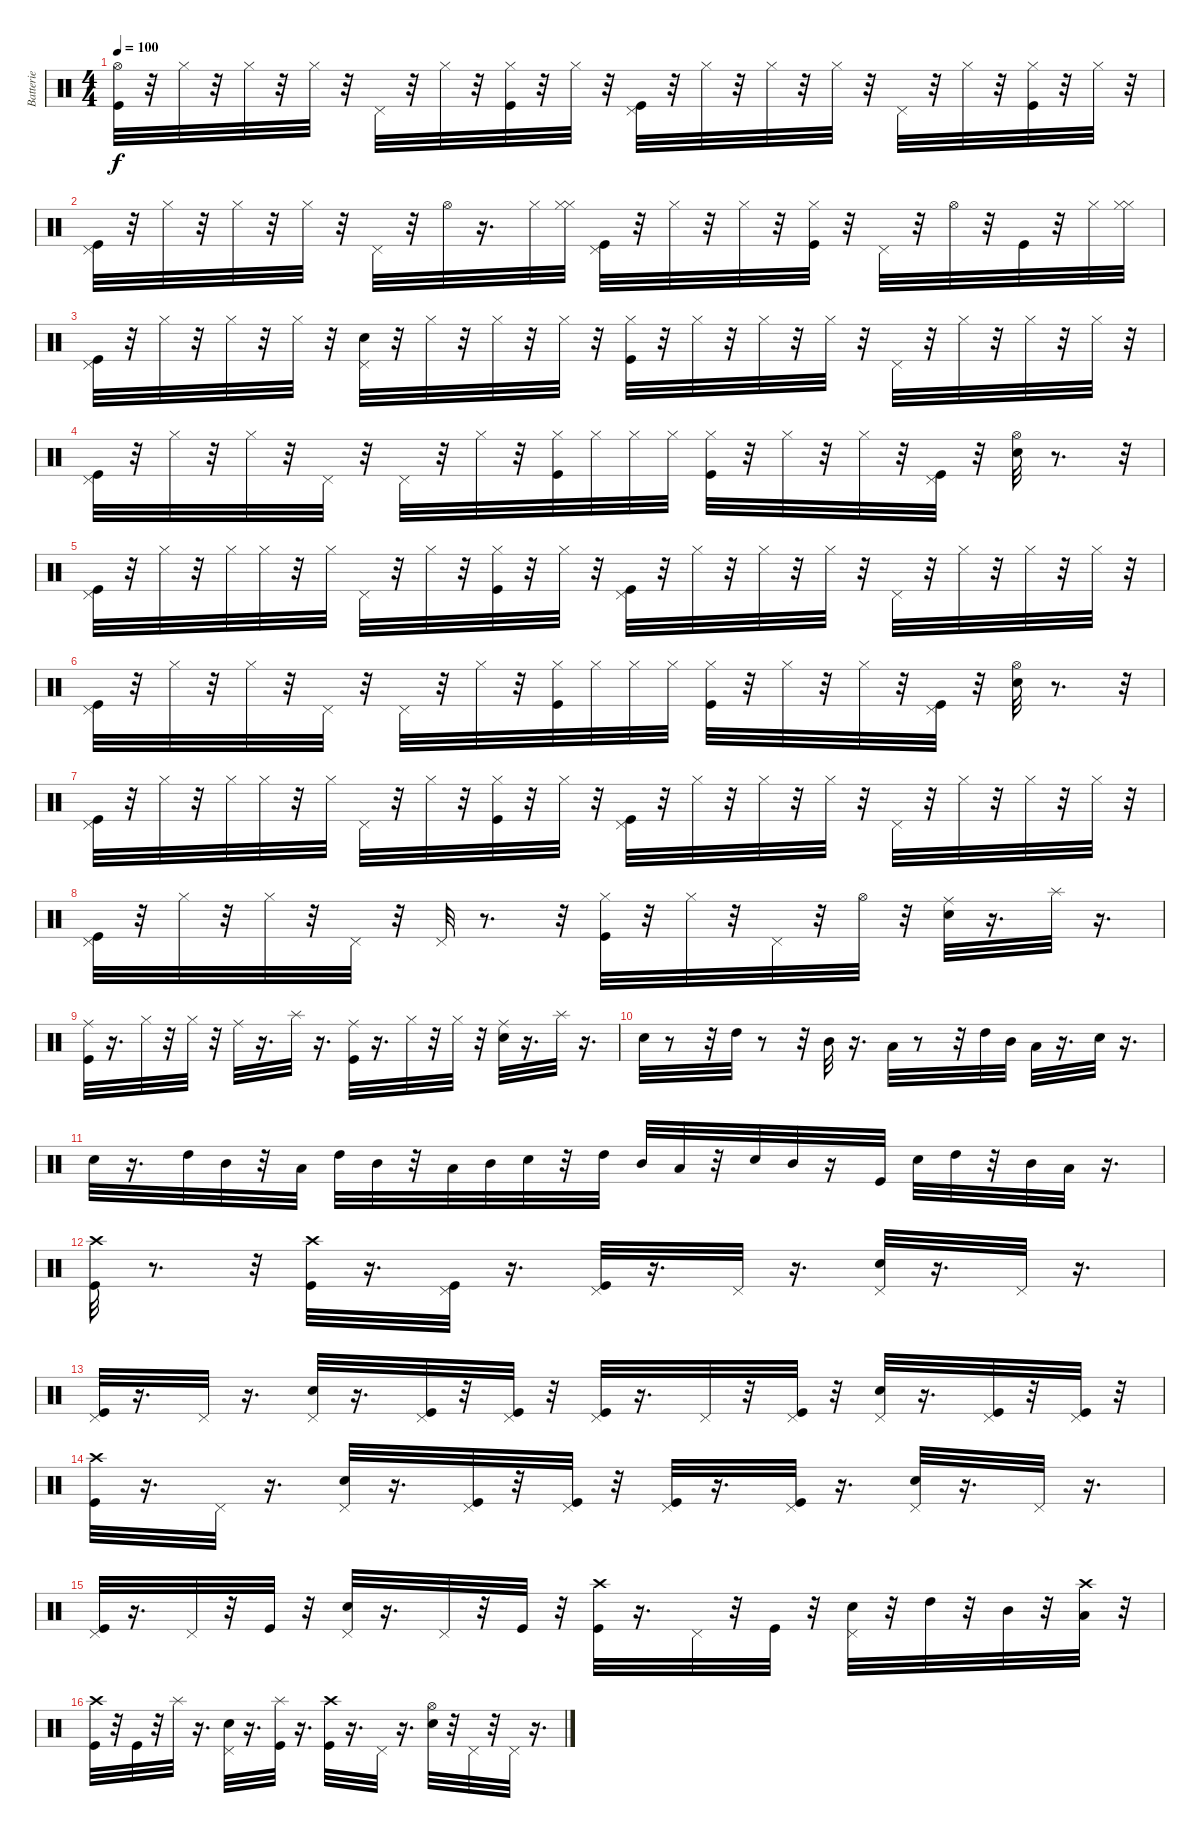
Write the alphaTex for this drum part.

\track ("Batterie" "Batterie") {instrument percussion}
\staff {score}
\articulation defaults
\ts (4 4)
\tempo 100
\clef neutral
\ks c
("Kick (hit)" "Hi-Hat (open)").32{dy f} r.32 "Hi-Hat (closed)".32 r.32 "Hi-Hat (closed)".32 r.32 "Hi-Hat (closed)".32 r.32 "Pedal Hi-Hat (hit)".32 r.32 "Hi-Hat (closed)".32 r.32 ("Kick (hit)" "Hi-Hat (closed)").32 r.32 "Hi-Hat (closed)".32 r.32 ("Kick (hit)" "Pedal Hi-Hat (hit)").32 r.32 "Hi-Hat (closed)".32 r.32 "Hi-Hat (closed)".32 r.32 "Hi-Hat (closed)".32 r.32 "Pedal Hi-Hat (hit)".32 r.32 "Hi-Hat (closed)".32 r.32 ("Kick (hit)" "Hi-Hat (closed)").32 r.32 "Hi-Hat (closed)".32 r.32 |
("Kick (hit)" "Pedal Hi-Hat (hit)").32 r.32 "Hi-Hat (closed)".32 r.32 "Hi-Hat (closed)".32 r.32 "Hi-Hat (closed)".32 r.32 "Pedal Hi-Hat (hit)".32 r.32 "Hi-Hat (open)".32 r.16{d} "Hi-Hat (closed)".32 ("Hi-Hat (closed)" "Hi-Hat (closed)").32 ("Kick (hit)" "Pedal Hi-Hat (hit)").32 r.32 "Hi-Hat (closed)".32 r.32 "Hi-Hat (closed)".32 r.32 ("Kick (hit)" "Hi-Hat (closed)").32 r.32 "Pedal Hi-Hat (hit)".32 r.32 "Hi-Hat (open)".32 r.32 "Kick (hit)".32 r.32 "Hi-Hat (closed)".32 ("Hi-Hat (closed)" "Hi-Hat (closed)").32 |
("Pedal Hi-Hat (hit)" "Kick (hit)").32 r.32 "Hi-Hat (closed)".32 r.32 "Hi-Hat (closed)".32 r.32 "Hi-Hat (closed)".32 r.32 ("Pedal Hi-Hat (hit)" "Snare (hit) 2").32 r.32 "Hi-Hat (closed)".32 r.32 "Hi-Hat (closed)".32 r.32 "Hi-Hat (closed)".32 r.32 ("Hi-Hat (closed)" "Kick (hit)").32 r.32 "Hi-Hat (closed)".32 r.32 "Hi-Hat (closed)".32 r.32 "Hi-Hat (closed)".32 r.32 "Pedal Hi-Hat (hit)".32 r.32 "Hi-Hat (closed)".32 r.32 "Hi-Hat (closed)".32 r.32 "Hi-Hat (closed)".32 r.32 |
("Pedal Hi-Hat (hit)" "Kick (hit)").32 r.32 "Hi-Hat (closed)".32 r.32 "Hi-Hat (closed)".32 r.32 "Pedal Hi-Hat (hit)".32 r.32 "Pedal Hi-Hat (hit)".32 r.32 "Hi-Hat (closed)".32 r.32 ("Hi-Hat (closed)" "Kick (hit)").32 "Hi-Hat (closed)".32 "Hi-Hat (closed)".32 "Hi-Hat (closed)".32 ("Hi-Hat (closed)" "Kick (hit)").32 r.32 "Hi-Hat (closed)".32 r.32 "Hi-Hat (closed)".32 r.32 ("Pedal Hi-Hat (hit)" "Kick (hit)").32 r.32 ("Hi-Hat (open)" "Snare (hit) 2").32 r.8{d} r.32 |
("Pedal Hi-Hat (hit)" "Kick (hit)").32 r.32 "Hi-Hat (closed)".32 r.32 "Hi-Hat (closed)".32 "Hi-Hat (closed)".32 r.32 "Hi-Hat (closed)".32 "Pedal Hi-Hat (hit)".32 r.32 "Hi-Hat (closed)".32 r.32 ("Hi-Hat (closed)" "Kick (hit)").32 r.32 "Hi-Hat (closed)".32 r.32 ("Pedal Hi-Hat (hit)" "Kick (hit)").32 r.32 "Hi-Hat (closed)".32 r.32 "Hi-Hat (closed)".32 r.32 "Hi-Hat (closed)".32 r.32 "Pedal Hi-Hat (hit)".32 r.32 "Hi-Hat (closed)".32 r.32 "Hi-Hat (closed)".32 r.32 "Hi-Hat (closed)".32 r.32 |
("Pedal Hi-Hat (hit)" "Kick (hit)").32 r.32 "Hi-Hat (closed)".32 r.32 "Hi-Hat (closed)".32 r.32 "Pedal Hi-Hat (hit)".32 r.32 "Pedal Hi-Hat (hit)".32 r.32 "Hi-Hat (closed)".32 r.32 ("Hi-Hat (closed)" "Kick (hit)").32 "Hi-Hat (closed)".32 "Hi-Hat (closed)".32 "Hi-Hat (closed)".32 ("Hi-Hat (closed)" "Kick (hit)").32 r.32 "Hi-Hat (closed)".32 r.32 "Hi-Hat (closed)".32 r.32 ("Pedal Hi-Hat (hit)" "Kick (hit)").32 r.32 ("Hi-Hat (open)" "Snare (hit) 2").32 r.8{d} r.32 |
("Pedal Hi-Hat (hit)" "Kick (hit)").32 r.32 "Hi-Hat (closed)".32 r.32 "Hi-Hat (closed)".32 "Hi-Hat (closed)".32 r.32 "Hi-Hat (closed)".32 "Pedal Hi-Hat (hit)".32 r.32 "Hi-Hat (closed)".32 r.32 ("Hi-Hat (closed)" "Kick (hit)").32 r.32 "Hi-Hat (closed)".32 r.32 ("Pedal Hi-Hat (hit)" "Kick (hit)").32 r.32 "Hi-Hat (closed)".32 r.32 "Hi-Hat (closed)".32 r.32 "Hi-Hat (closed)".32 r.32 "Pedal Hi-Hat (hit)".32 r.32 "Hi-Hat (closed)".32 r.32 "Hi-Hat (closed)".32 r.32 "Hi-Hat (closed)".32 r.32 |
("Pedal Hi-Hat (hit)" "Kick (hit)").32 r.32 "Hi-Hat (closed)".32 r.32 "Hi-Hat (closed)".32 r.32 "Pedal Hi-Hat (hit)".32 r.32 "Pedal Hi-Hat (hit)".32 r.8{d} r.32 ("Hi-Hat (closed)" "Kick (hit)").32 r.32 "Hi-Hat (closed)".32 r.32 "Pedal Hi-Hat (hit)".32 r.32 "Hi-Hat (open)".32 r.32 ("Ride (middle)" "Snare (hit) 2").32 r.16{d} "Splash (hit)".32 r.16{d} |
("Ride (middle)" "Kick (hit)").32 r.16{d} "Hi-Hat (closed)".32 r.32 "Hi-Hat (closed)".32 r.32 "Ride (middle)".32 r.16{d} "Splash (hit)".32 r.16{d} ("Ride (middle)" "Kick (hit)").32 r.16{d} "Hi-Hat (closed)".32 r.32 "Hi-Hat (closed)".32 r.32 ("Ride (middle)" "Snare (hit) 2").32 r.16{d} "Splash (hit)".32 r.16{d} |
"Snare (hit) 2".32 r.8 r.32 "High Tom (hit)".32 r.8 r.32 "Mid Tom (hit)".32 r.16{d} "Low Tom (hit)".32 r.8 r.32 "High Tom (hit)".32 "Mid Tom (hit)".32 "Low Tom (hit)".32 r.16{d} "Snare (hit) 2".32 r.16{d} |
"Snare (hit) 2".32 r.16{d} "High Tom (hit)".32 "Mid Tom (hit)".32 r.32 "Low Tom (hit)".32 "High Tom (hit)".32 "Mid Tom (hit)".32 r.32 "Low Tom (hit)".32 "Mid Tom (hit)".32 "Snare (hit) 2".32 r.32 "High Tom (hit)".32 "Mid Tom (hit)".32 "Low Tom (hit)".32 r.32 "Snare (hit) 2".32 "Mid Tom (hit)".32 r.16 "Kick (hit)".32 "Snare (hit) 2".32 "High Tom (hit)".32 r.32 "Mid Tom (hit)".32 "Low Tom (hit)".32 r.16{d} |
("Crash high (hit)" "Kick (hit)").32 r.8{d} r.32 ("Crash high (hit)" "Kick (hit)").32 r.16{d} ("Pedal Hi-Hat (hit)" "Kick (hit)").32 r.16{d} ("Pedal Hi-Hat (hit)" "Kick (hit)").32 r.16{d} "Pedal Hi-Hat (hit)".32 r.16{d} ("Pedal Hi-Hat (hit)" "Snare (hit) 2").32 r.16{d} "Pedal Hi-Hat (hit)".32 r.16{d} |
("Pedal Hi-Hat (hit)" "Kick (hit)").32 r.16{d} "Pedal Hi-Hat (hit)".32 r.16{d} ("Pedal Hi-Hat (hit)" "Snare (hit) 2").32 r.16{d} ("Pedal Hi-Hat (hit)" "Kick (hit)").32 r.32 ("Pedal Hi-Hat (hit)" "Kick (hit)").32 r.32 ("Pedal Hi-Hat (hit)" "Kick (hit)").32 r.16{d} "Pedal Hi-Hat (hit)".32 r.32 ("Pedal Hi-Hat (hit)" "Kick (hit)").32 r.32 ("Pedal Hi-Hat (hit)" "Snare (hit) 2").32 r.16{d} ("Pedal Hi-Hat (hit)" "Kick (hit)").32 r.32 ("Pedal Hi-Hat (hit)" "Kick (hit)").32 r.32 |
("Kick (hit)" "Crash high (hit)").32 r.16{d} "Pedal Hi-Hat (hit)".32 r.16{d} ("Pedal Hi-Hat (hit)" "Snare (hit) 2").32 r.16{d} ("Pedal Hi-Hat (hit)" "Kick (hit)").32 r.32 ("Pedal Hi-Hat (hit)" "Kick (hit)").32 r.32 ("Pedal Hi-Hat (hit)" "Kick (hit)").32 r.16{d} ("Pedal Hi-Hat (hit)" "Kick (hit)").32 r.16{d} ("Pedal Hi-Hat (hit)" "Snare (hit) 2").32 r.16{d} "Pedal Hi-Hat (hit)".32 r.16{d} |
("Kick (hit)" "Pedal Hi-Hat (hit)").32 r.16{d} "Pedal Hi-Hat (hit)".32 r.32 "Kick (hit)".32 r.32 ("Snare (hit) 2" "Pedal Hi-Hat (hit)").32 r.16{d} "Pedal Hi-Hat (hit)".32 r.32 "Kick (hit)".32 r.32 ("Kick (hit)" "Crash high (hit)").32 r.16{d} "Pedal Hi-Hat (hit)".32 r.32 "Kick (hit)".32 r.32 ("Snare (hit) 2" "Pedal Hi-Hat (hit)").32 r.32 "High Tom (hit)".32 r.32 "Mid Tom (hit)".32 r.32 ("Low Tom (hit)" "Crash high (hit)").32 r.32 |
("Crash high (hit)" "Kick (hit)").32 r.32 "Kick (hit)".32 r.32 "Splash (hit)".32 r.16{d} ("Pedal Hi-Hat (hit)" "Snare (hit) 2").32 r.16{d} ("Splash (hit)" "Kick (hit)").32 r.16{d} ("Crash high (hit)" "Kick (hit)").32 r.16{d} "Pedal Hi-Hat (hit)".32 r.16{d} ("Hi-Hat (open)" "Snare (hit) 2").32 r.32 "Pedal Hi-Hat (hit)".32 r.32 "Pedal Hi-Hat (hit)".32 r.16{d}
